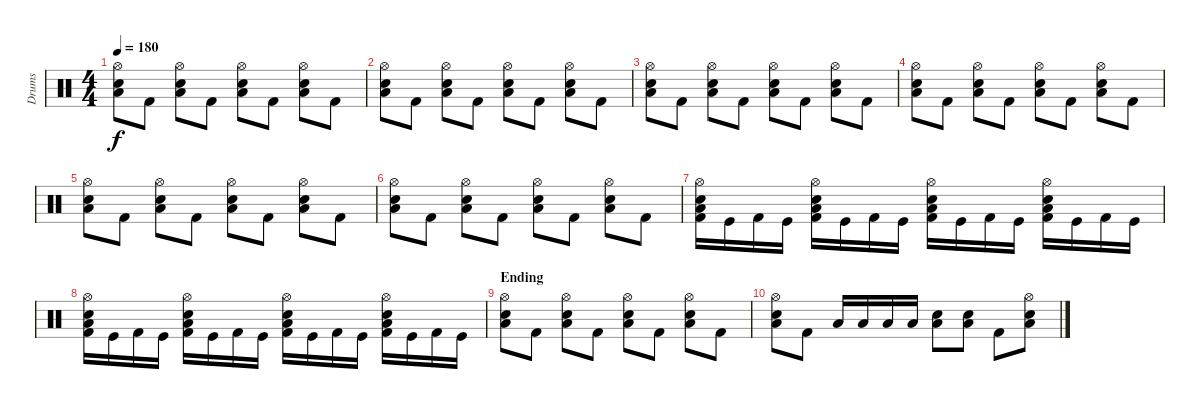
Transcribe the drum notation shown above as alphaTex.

\track ("Drums" "Drums") {instrument percussion}
\staff {score}
\articulation defaults
\ts (4 4)
\tempo 180
\clef neutral
\ks c
("Hi-Hat (open)" "Electric Snare (hit)" "Low Tom (hit)").8{dy f} "Kick (hit) 2".8 ("Hi-Hat (open)" "Electric Snare (hit)" "Low Tom (hit)").8 "Kick (hit) 2".8 ("Hi-Hat (open)" "Electric Snare (hit)" "Low Tom (hit)").8 "Kick (hit) 2".8 ("Hi-Hat (open)" "Electric Snare (hit)" "Low Tom (hit)").8 "Kick (hit) 2".8 |
("Hi-Hat (open)" "Electric Snare (hit)" "Low Tom (hit)").8 "Kick (hit) 2".8 ("Hi-Hat (open)" "Electric Snare (hit)" "Low Tom (hit)").8 "Kick (hit) 2".8 ("Hi-Hat (open)" "Electric Snare (hit)" "Low Tom (hit)").8 "Kick (hit) 2".8 ("Hi-Hat (open)" "Electric Snare (hit)" "Low Tom (hit)").8 "Kick (hit) 2".8 |
("Hi-Hat (open)" "Electric Snare (hit)" "Low Tom (hit)").8 "Kick (hit) 2".8 ("Hi-Hat (open)" "Electric Snare (hit)" "Low Tom (hit)").8 "Kick (hit) 2".8 ("Hi-Hat (open)" "Electric Snare (hit)" "Low Tom (hit)").8 "Kick (hit) 2".8 ("Hi-Hat (open)" "Electric Snare (hit)" "Low Tom (hit)").8 "Kick (hit) 2".8 |
("Hi-Hat (open)" "Electric Snare (hit)" "Low Tom (hit)").8 "Kick (hit) 2".8 ("Hi-Hat (open)" "Electric Snare (hit)" "Low Tom (hit)").8 "Kick (hit) 2".8 ("Hi-Hat (open)" "Electric Snare (hit)" "Low Tom (hit)").8 "Kick (hit) 2".8 ("Hi-Hat (open)" "Electric Snare (hit)" "Low Tom (hit)").8 "Kick (hit) 2".8 |
("Hi-Hat (open)" "Electric Snare (hit)" "Low Tom (hit)").8 "Kick (hit) 2".8 ("Hi-Hat (open)" "Electric Snare (hit)" "Low Tom (hit)").8 "Kick (hit) 2".8 ("Hi-Hat (open)" "Electric Snare (hit)" "Low Tom (hit)").8 "Kick (hit) 2".8 ("Hi-Hat (open)" "Electric Snare (hit)" "Low Tom (hit)").8 "Kick (hit) 2".8 |
("Hi-Hat (open)" "Electric Snare (hit)" "Low Tom (hit)").8 "Kick (hit) 2".8 ("Hi-Hat (open)" "Electric Snare (hit)" "Low Tom (hit)").8 "Kick (hit) 2".8 ("Hi-Hat (open)" "Electric Snare (hit)" "Low Tom (hit)").8 "Kick (hit) 2".8 ("Hi-Hat (open)" "Electric Snare (hit)" "Low Tom (hit)").8 "Kick (hit) 2".8 |
("Hi-Hat (open)" "Electric Snare (hit)" "Low Tom (hit)" "Kick (hit) 2").16 "Kick (hit)".16 "Kick (hit) 2".16 "Kick (hit)".16 ("Hi-Hat (open)" "Electric Snare (hit)" "Low Tom (hit)" "Kick (hit) 2").16 "Kick (hit)".16 "Kick (hit) 2".16 "Kick (hit)".16 ("Hi-Hat (open)" "Electric Snare (hit)" "Low Tom (hit)" "Kick (hit) 2").16 "Kick (hit)".16 "Kick (hit) 2".16 "Kick (hit)".16 ("Hi-Hat (open)" "Electric Snare (hit)" "Low Tom (hit)" "Kick (hit) 2").16 "Kick (hit)".16 "Kick (hit) 2".16 "Kick (hit)".16 |
("Hi-Hat (open)" "Electric Snare (hit)" "Low Tom (hit)" "Kick (hit) 2").16 "Kick (hit)".16 "Kick (hit) 2".16 "Kick (hit)".16 ("Hi-Hat (open)" "Electric Snare (hit)" "Low Tom (hit)" "Kick (hit) 2").16 "Kick (hit)".16 "Kick (hit) 2".16 "Kick (hit)".16 ("Hi-Hat (open)" "Electric Snare (hit)" "Low Tom (hit)" "Kick (hit) 2").16 "Kick (hit)".16 "Kick (hit) 2".16 "Kick (hit)".16 ("Hi-Hat (open)" "Electric Snare (hit)" "Low Tom (hit)" "Kick (hit) 2").16 "Kick (hit)".16 "Kick (hit) 2".16 "Kick (hit)".16 |
\section ("" "Ending")
("Hi-Hat (open)" "Electric Snare (hit)" "Low Tom (hit)").8 "Kick (hit) 2".8 ("Hi-Hat (open)" "Electric Snare (hit)" "Low Tom (hit)").8 "Kick (hit) 2".8 ("Hi-Hat (open)" "Electric Snare (hit)" "Low Tom (hit)").8 "Kick (hit) 2".8 ("Hi-Hat (open)" "Electric Snare (hit)" "Low Tom (hit)").8 "Kick (hit) 2".8 |
("Hi-Hat (open)" "Electric Snare (hit)" "Low Tom (hit)").8 "Kick (hit) 2".8 "Low Tom (hit)".16 "Low Tom (hit)".16 "Low Tom (hit)".16 "Low Tom (hit)".16 ("Electric Snare (hit)" "Low Tom (hit)").8 ("Electric Snare (hit)" "Low Tom (hit)").8 "Kick (hit) 2".8 ("Hi-Hat (open)" "Electric Snare (hit)" "Low Tom (hit)").8
